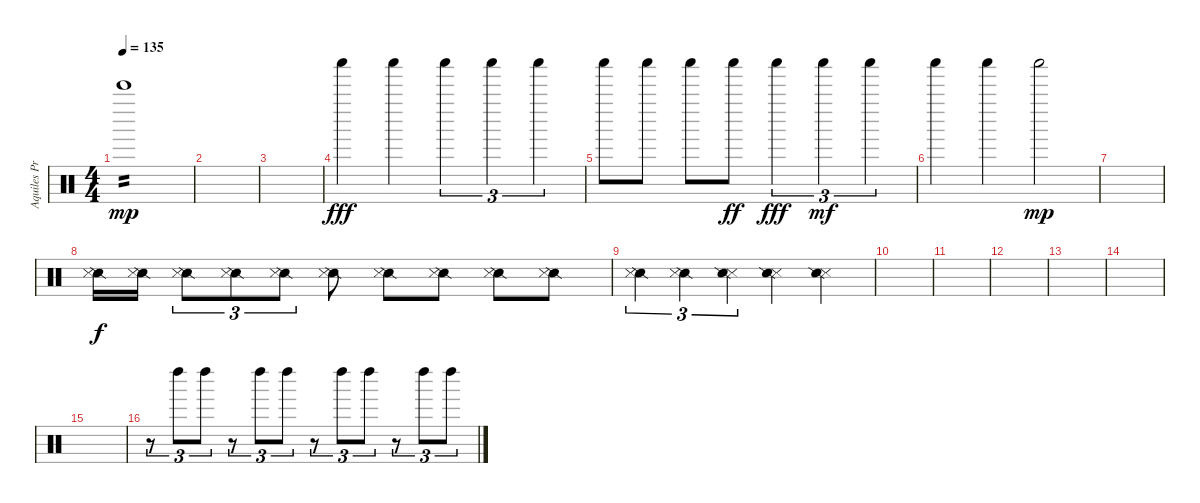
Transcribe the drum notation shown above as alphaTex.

\track ("Aquiles Priester" "Aquiles Pr") {instrument percussion}
\staff {score}
\articulation defaults
\ts (4 4)
\tempo 135
\clef neutral
\ks c "Bell Tree (hit)".1{tp 2 dy mp}
|
|
|
"Shaker (hit)".4{dy fff} "Shaker (hit)".4 "Shaker (hit)".4{tu (3 2)} "Shaker (hit)".4{tu (3 2)} "Shaker (hit)".4{tu (3 2)} |
"Shaker (hit)".8 "Shaker (hit)".8 "Shaker (hit)".8 "Shaker (hit)".8{dy ff} "Shaker (hit)".4{tu (3 2) dy fff} "Shaker (hit)".4{tu (3 2) dy mf} "Shaker (hit)".4{tu (3 2)} |
"Shaker (hit)".4 "Shaker (hit)".4 "Shaker (hit)".2{dy mp} |
|
("Snare (side stick) 2" "Snare (side stick) 3").16{dy f} ("Snare (side stick) 2" "Snare (side stick) 3").16 ("Snare (side stick) 2" "Snare (side stick) 3").8{tu (3 2)} ("Snare (side stick) 2" "Snare (side stick) 3").8{tu (3 2)} ("Snare (side stick) 2" "Snare (side stick) 3").8{tu (3 2)} ("Snare (side stick) 2" "Snare (side stick) 3").8 ("Snare (side stick) 2" "Snare (side stick) 3").8 ("Snare (side stick) 2" "Snare (side stick) 3").8 ("Snare (side stick) 2" "Snare (side stick) 3").8 ("Snare (side stick) 2" "Snare (side stick) 3").8 |
("Snare (side stick) 2" "Snare (side stick) 3").4{tu (3 2)} ("Snare (side stick) 2" "Snare (side stick) 3").4{tu (3 2)} ("Snare (side stick) 3" "Snare (side stick) 2").4{tu (3 2)} ("Snare (side stick) 3" "Snare (side stick) 2").4 ("Snare (side stick) 3" "Snare (side stick) 2").4 |
|
|
|
|
|
|
r.8{tu (3 2)} "Left Maraca (hit)".8{tu (3 2)} "Left Maraca (hit)".8{tu (3 2)} r.8{tu (3 2)} "Left Maraca (hit)".8{tu (3 2)} "Left Maraca (hit)".8{tu (3 2)} r.8{tu (3 2)} "Left Maraca (hit)".8{tu (3 2)} "Left Maraca (hit)".8{tu (3 2)} r.8{tu (3 2)} "Left Maraca (hit)".8{tu (3 2)} "Left Maraca (hit)".8{tu (3 2)}
